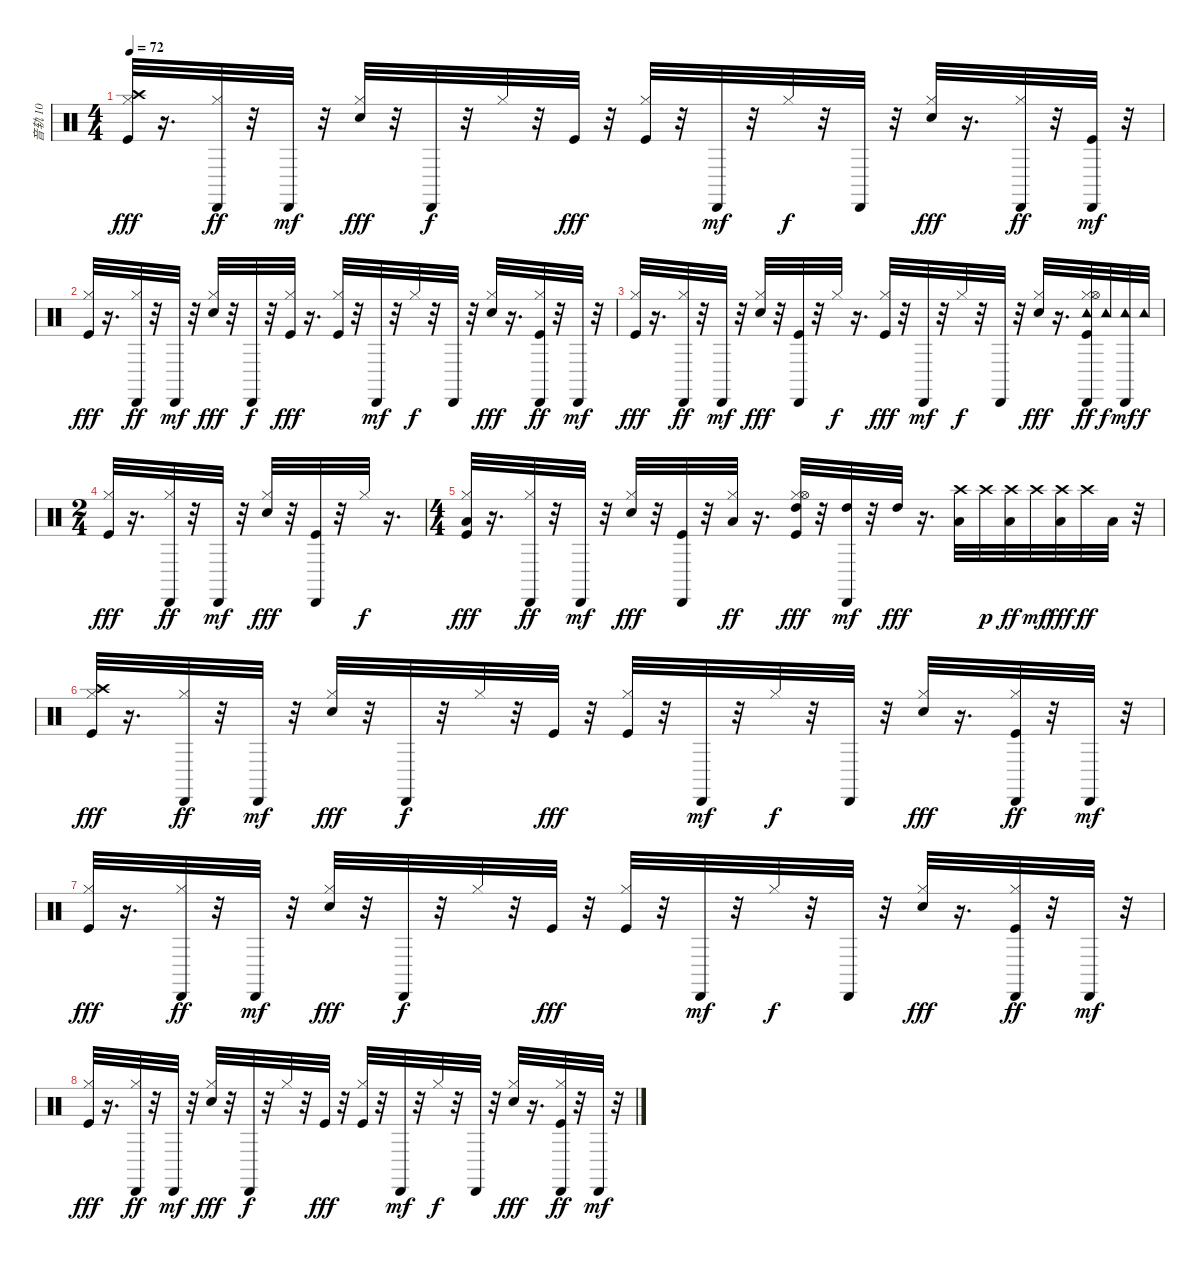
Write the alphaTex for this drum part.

\track ("音轨 10" "音轨 10") {instrument percussion}
\staff {score}
\articulation defaults
\ts (4 4)
\tempo 72
\clef neutral
\ks c
("Kick (hit)" "Hi-Hat (closed)" "Crash high (hit)").32{dy fff} r.16{d} ("Hi-Hat (closed)" "Cabasa (hit)").32{dy ff} r.32 "Cabasa (hit)".32{dy mf} r.32 ("Electric Snare (hit)" "Hi-Hat (closed)").32{dy fff} r.32 "Cabasa (hit)".32{dy f} r.32 "Hi-Hat (closed)".32 r.32 "Kick (hit)".32{dy fff} r.32 ("Kick (hit)" "Hi-Hat (closed)").32 r.32 "Cabasa (hit)".32{dy mf} r.32 "Hi-Hat (closed)".32{dy f} r.32 "Cabasa (hit)".32 r.32 ("Electric Snare (hit)" "Hi-Hat (closed)").32{dy fff} r.16{d} ("Hi-Hat (closed)" "Cabasa (hit)").32{dy ff} r.32 ("Kick (hit)" "Cabasa (hit)").32{dy mf} r.32 |
("Kick (hit)" "Hi-Hat (closed)").32{dy fff} r.16{d} ("Hi-Hat (closed)" "Cabasa (hit)").32{dy ff} r.32 "Cabasa (hit)".32{dy mf} r.32 ("Electric Snare (hit)" "Hi-Hat (closed)").32{dy fff} r.32 "Cabasa (hit)".32{dy f} r.32 ("Kick (hit)" "Hi-Hat (closed)").32{dy fff} r.16{d} ("Kick (hit)" "Hi-Hat (closed)").32 r.32 "Cabasa (hit)".32{dy mf} r.32 "Hi-Hat (closed)".32{dy f} r.32 "Cabasa (hit)".32 r.32 ("Electric Snare (hit)" "Hi-Hat (closed)").32{dy fff} r.16{d} ("Kick (hit)" "Hi-Hat (closed)" "Cabasa (hit)").32{dy ff} r.32 "Cabasa (hit)".32{dy mf} r.32 |
("Kick (hit)" "Hi-Hat (closed)").32{dy fff} r.16{d} ("Hi-Hat (closed)" "Cabasa (hit)").32{dy ff} r.32 "Cabasa (hit)".32{dy mf} r.32 ("Electric Snare (hit)" "Hi-Hat (closed)").32{dy fff} r.32 ("Kick (hit)" "Cabasa (hit)").32 r.32 "Hi-Hat (closed)".32{dy f} r.16{d} ("Kick (hit)" "Hi-Hat (closed)").32{dy fff} r.32 "Cabasa (hit)".32{dy mf} r.32 "Hi-Hat (closed)".32{dy f} r.32 "Cabasa (hit)".32 r.32 ("Electric Snare (hit)" "Hi-Hat (closed)").32{dy fff} r.16{d} ("Kick (hit)" "Hi-Hat (closed)" "Hi-Hat (open)" "Tambourine (hit)" "Cabasa (hit)").32{dy ff} "Tambourine (hit)".32{dy f} ("Tambourine (hit)" "Cabasa (hit)").32{dy mf} "Tambourine (hit)".32{dy f} |
\ts (2 4)
("Kick (hit)" "Hi-Hat (closed)").32{dy fff} r.16{d} ("Hi-Hat (closed)" "Cabasa (hit)").32{dy ff} r.32 "Cabasa (hit)".32{dy mf} r.32 ("Electric Snare (hit)" "Hi-Hat (closed)").32{dy fff} r.32 ("Kick (hit)" "Cabasa (hit)").32 r.32 "Hi-Hat (closed)".32{dy f} r.16{d} |
\ts (4 4)
("Kick (hit)" "Hi-Hat (closed)" "Low Floor Tom (hit)").32{dy fff} r.16{d} ("Hi-Hat (closed)" "Cabasa (hit)").32{dy ff} r.32 "Cabasa (hit)".32{dy mf} r.32 ("Electric Snare (hit)" "Hi-Hat (closed)").32{dy fff} r.32 ("Kick (hit)" "Cabasa (hit)").32 r.32 ("Hi-Hat (closed)" "Low Tom (hit)").32{dy ff} r.16{d} ("Kick (hit)" "Hi-Hat (closed)" "Hi-Hat (open)" "High Tom (hit)").32{dy fff} r.32 ("High Tom (hit)" "Cabasa (hit)").32{dy mf} r.32 "High Tom (hit)".32{dy fff} r.16{d} ("Crash high (hit)" "Low Tom (hit)").32 "Crash high (hit)".32{dy p} ("Crash high (hit)" "Low Tom (hit)").32{dy ff} "Crash high (hit)".32{dy mf} ("Crash high (hit)" "Low Floor Tom (hit)").32{dy fff} "Crash high (hit)".32{dy ff} "Low Floor Tom (hit)".32 r.32 |
("Kick (hit)" "Hi-Hat (closed)" "Crash high (hit)").32{dy fff} r.16{d} ("Hi-Hat (closed)" "Cabasa (hit)").32{dy ff} r.32 "Cabasa (hit)".32{dy mf} r.32 ("Electric Snare (hit)" "Hi-Hat (closed)").32{dy fff} r.32 "Cabasa (hit)".32{dy f} r.32 "Hi-Hat (closed)".32 r.32 "Kick (hit)".32{dy fff} r.32 ("Kick (hit)" "Hi-Hat (closed)").32 r.32 "Cabasa (hit)".32{dy mf} r.32 "Hi-Hat (closed)".32{dy f} r.32 "Cabasa (hit)".32 r.32 ("Electric Snare (hit)" "Hi-Hat (closed)").32{dy fff} r.16{d} ("Kick (hit)" "Hi-Hat (closed)" "Cabasa (hit)").32{dy ff} r.32 "Cabasa (hit)".32{dy mf} r.32 |
("Kick (hit)" "Hi-Hat (closed)").32{dy fff} r.16{d} ("Hi-Hat (closed)" "Cabasa (hit)").32{dy ff} r.32 "Cabasa (hit)".32{dy mf} r.32 ("Electric Snare (hit)" "Hi-Hat (closed)").32{dy fff} r.32 "Cabasa (hit)".32{dy f} r.32 "Hi-Hat (closed)".32 r.32 "Kick (hit)".32{dy fff} r.32 ("Kick (hit)" "Hi-Hat (closed)").32 r.32 "Cabasa (hit)".32{dy mf} r.32 "Hi-Hat (closed)".32{dy f} r.32 "Cabasa (hit)".32 r.32 ("Electric Snare (hit)" "Hi-Hat (closed)").32{dy fff} r.16{d} ("Kick (hit)" "Hi-Hat (closed)" "Cabasa (hit)").32{dy ff} r.32 "Cabasa (hit)".32{dy mf} r.32 |
("Kick (hit)" "Hi-Hat (closed)").32{dy fff} r.16{d} ("Hi-Hat (closed)" "Cabasa (hit)").32{dy ff} r.32 "Cabasa (hit)".32{dy mf} r.32 ("Electric Snare (hit)" "Hi-Hat (closed)").32{dy fff} r.32 "Cabasa (hit)".32{dy f} r.32 "Hi-Hat (closed)".32 r.32 "Kick (hit)".32{dy fff} r.32 ("Kick (hit)" "Hi-Hat (closed)").32 r.32 "Cabasa (hit)".32{dy mf} r.32 "Hi-Hat (closed)".32{dy f} r.32 "Cabasa (hit)".32 r.32 ("Electric Snare (hit)" "Hi-Hat (closed)").32{dy fff} r.16{d} ("Kick (hit)" "Hi-Hat (closed)" "Cabasa (hit)").32{dy ff} r.32 "Cabasa (hit)".32{dy mf} r.32
